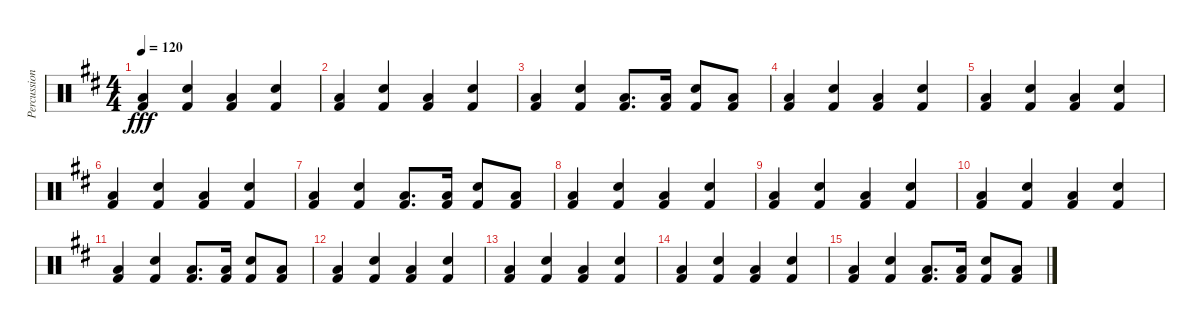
\track ("Percussion" "Percussion") {instrument percussion}
\staff {score}
\articulation defaults
\ts (4 4)
\tempo 120
\clef neutral
\ks bminor
("Kick (hit) 2" "Low Floor Tom (hit)").4{dy fff} ("Kick (hit) 2" "Snare (hit) 2").4 ("Kick (hit) 2" "Low Floor Tom (hit)").4 ("Kick (hit) 2" "Snare (hit) 2").4 |
("Kick (hit) 2" "Low Floor Tom (hit)").4 ("Kick (hit) 2" "Snare (hit) 2").4 ("Kick (hit) 2" "Low Floor Tom (hit)").4 ("Kick (hit) 2" "Snare (hit) 2").4 |
("Kick (hit) 2" "Low Floor Tom (hit)").4 ("Kick (hit) 2" "Snare (hit) 2").4 ("Kick (hit) 2" "Low Floor Tom (hit)").8{d} ("Kick (hit) 2" "Low Floor Tom (hit)").16 ("Kick (hit) 2" "Snare (hit) 2").8 ("Kick (hit) 2" "Low Floor Tom (hit)").8 |
("Kick (hit) 2" "Low Floor Tom (hit)").4 ("Kick (hit) 2" "Snare (hit) 2").4 ("Kick (hit) 2" "Low Floor Tom (hit)").4 ("Kick (hit) 2" "Snare (hit) 2").4 |
("Kick (hit) 2" "Low Floor Tom (hit)").4 ("Kick (hit) 2" "Snare (hit) 2").4 ("Kick (hit) 2" "Low Floor Tom (hit)").4 ("Kick (hit) 2" "Snare (hit) 2").4 |
("Kick (hit) 2" "Low Floor Tom (hit)").4 ("Kick (hit) 2" "Snare (hit) 2").4 ("Kick (hit) 2" "Low Floor Tom (hit)").4 ("Kick (hit) 2" "Snare (hit) 2").4 |
("Kick (hit) 2" "Low Floor Tom (hit)").4 ("Kick (hit) 2" "Snare (hit) 2").4 ("Kick (hit) 2" "Low Floor Tom (hit)").8{d} ("Kick (hit) 2" "Low Floor Tom (hit)").16 ("Kick (hit) 2" "Snare (hit) 2").8 ("Kick (hit) 2" "Low Floor Tom (hit)").8 |
("Kick (hit) 2" "Low Floor Tom (hit)").4 ("Kick (hit) 2" "Snare (hit) 2").4 ("Kick (hit) 2" "Low Floor Tom (hit)").4 ("Kick (hit) 2" "Snare (hit) 2").4 |
("Kick (hit) 2" "Low Floor Tom (hit)").4 ("Kick (hit) 2" "Snare (hit) 2").4 ("Kick (hit) 2" "Low Floor Tom (hit)").4 ("Kick (hit) 2" "Snare (hit) 2").4 |
("Kick (hit) 2" "Low Floor Tom (hit)").4 ("Kick (hit) 2" "Snare (hit) 2").4 ("Kick (hit) 2" "Low Floor Tom (hit)").4 ("Kick (hit) 2" "Snare (hit) 2").4 |
("Kick (hit) 2" "Low Floor Tom (hit)").4 ("Kick (hit) 2" "Snare (hit) 2").4 ("Kick (hit) 2" "Low Floor Tom (hit)").8{d} ("Kick (hit) 2" "Low Floor Tom (hit)").16 ("Kick (hit) 2" "Snare (hit) 2").8 ("Kick (hit) 2" "Low Floor Tom (hit)").8 |
("Kick (hit) 2" "Low Floor Tom (hit)").4 ("Kick (hit) 2" "Snare (hit) 2").4 ("Kick (hit) 2" "Low Floor Tom (hit)").4 ("Kick (hit) 2" "Snare (hit) 2").4 |
("Kick (hit) 2" "Low Floor Tom (hit)").4 ("Kick (hit) 2" "Snare (hit) 2").4 ("Kick (hit) 2" "Low Floor Tom (hit)").4 ("Kick (hit) 2" "Snare (hit) 2").4 |
("Kick (hit) 2" "Low Floor Tom (hit)").4 ("Kick (hit) 2" "Snare (hit) 2").4 ("Kick (hit) 2" "Low Floor Tom (hit)").4 ("Kick (hit) 2" "Snare (hit) 2").4 |
("Kick (hit) 2" "Low Floor Tom (hit)").4 ("Kick (hit) 2" "Snare (hit) 2").4 ("Kick (hit) 2" "Low Floor Tom (hit)").8{d} ("Kick (hit) 2" "Low Floor Tom (hit)").16 ("Kick (hit) 2" "Snare (hit) 2").8 ("Kick (hit) 2" "Low Floor Tom (hit)").8
